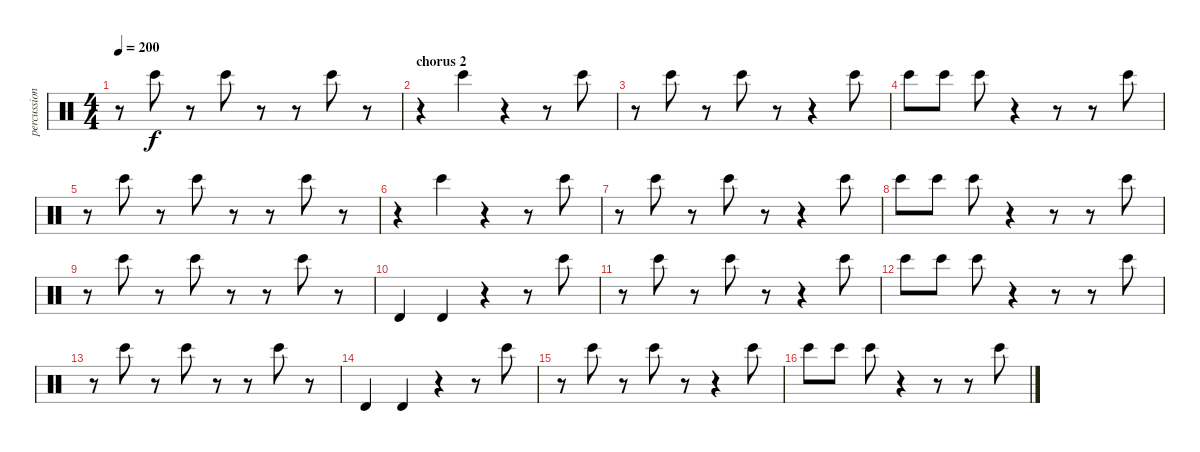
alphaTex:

\track ("percussion" "percussion") {instrument percussion}
\staff {score}
\articulation defaults
\ts (4 4)
\tempo 200
\clef neutral
\ks c
r.8{dy f} "Bongo High (hit)".8 r.8 "Bongo High (hit)".8 r.8 r.8 "Bongo High (hit)".8 r.8 |
\section ("" "chorus 2")
r.4 "Bongo High (hit)".4 r.4 r.8 "Bongo High (hit)".8 |
r.8 "Bongo High (hit)".8 r.8 "Bongo High (hit)".8 r.8 r.4 "Bongo High (hit)".8 |
"Bongo High (hit)".8 "Bongo High (hit)".8 "Bongo High (hit)".8 r.4 r.8 r.8 "Bongo High (hit)".8 |
r.8 "Bongo High (hit)".8 r.8 "Bongo High (hit)".8 r.8 r.8 "Bongo High (hit)".8 r.8 |
r.4 "Bongo High (hit)".4 r.4 r.8 "Bongo High (hit)".8 |
r.8 "Bongo High (hit)".8 r.8 "Bongo High (hit)".8 r.8 r.4 "Bongo High (hit)".8 |
"Bongo High (hit)".8 "Bongo High (hit)".8 "Bongo High (hit)".8 r.4 r.8 r.8 "Bongo High (hit)".8 |
r.8 "Bongo High (hit)".8 r.8 "Bongo High (hit)".8 r.8 r.8 "Bongo High (hit)".8 r.8 |
"Timbale high (hit)".4{volume 16} "Timbale high (hit)".4 r.4{volume 13} r.8 "Bongo High (hit)".8 |
r.8 "Bongo High (hit)".8 r.8 "Bongo High (hit)".8 r.8 r.4 "Bongo High (hit)".8 |
"Bongo High (hit)".8 "Bongo High (hit)".8 "Bongo High (hit)".8 r.4 r.8 r.8 "Bongo High (hit)".8 |
r.8 "Bongo High (hit)".8 r.8 "Bongo High (hit)".8 r.8 r.8 "Bongo High (hit)".8 r.8 |
"Timbale high (hit)".4{volume 16} "Timbale high (hit)".4 r.4{volume 13} r.8 "Bongo High (hit)".8 |
r.8 "Bongo High (hit)".8 r.8 "Bongo High (hit)".8 r.8 r.4 "Bongo High (hit)".8 |
"Bongo High (hit)".8 "Bongo High (hit)".8 "Bongo High (hit)".8 r.4 r.8 r.8 "Bongo High (hit)".8
